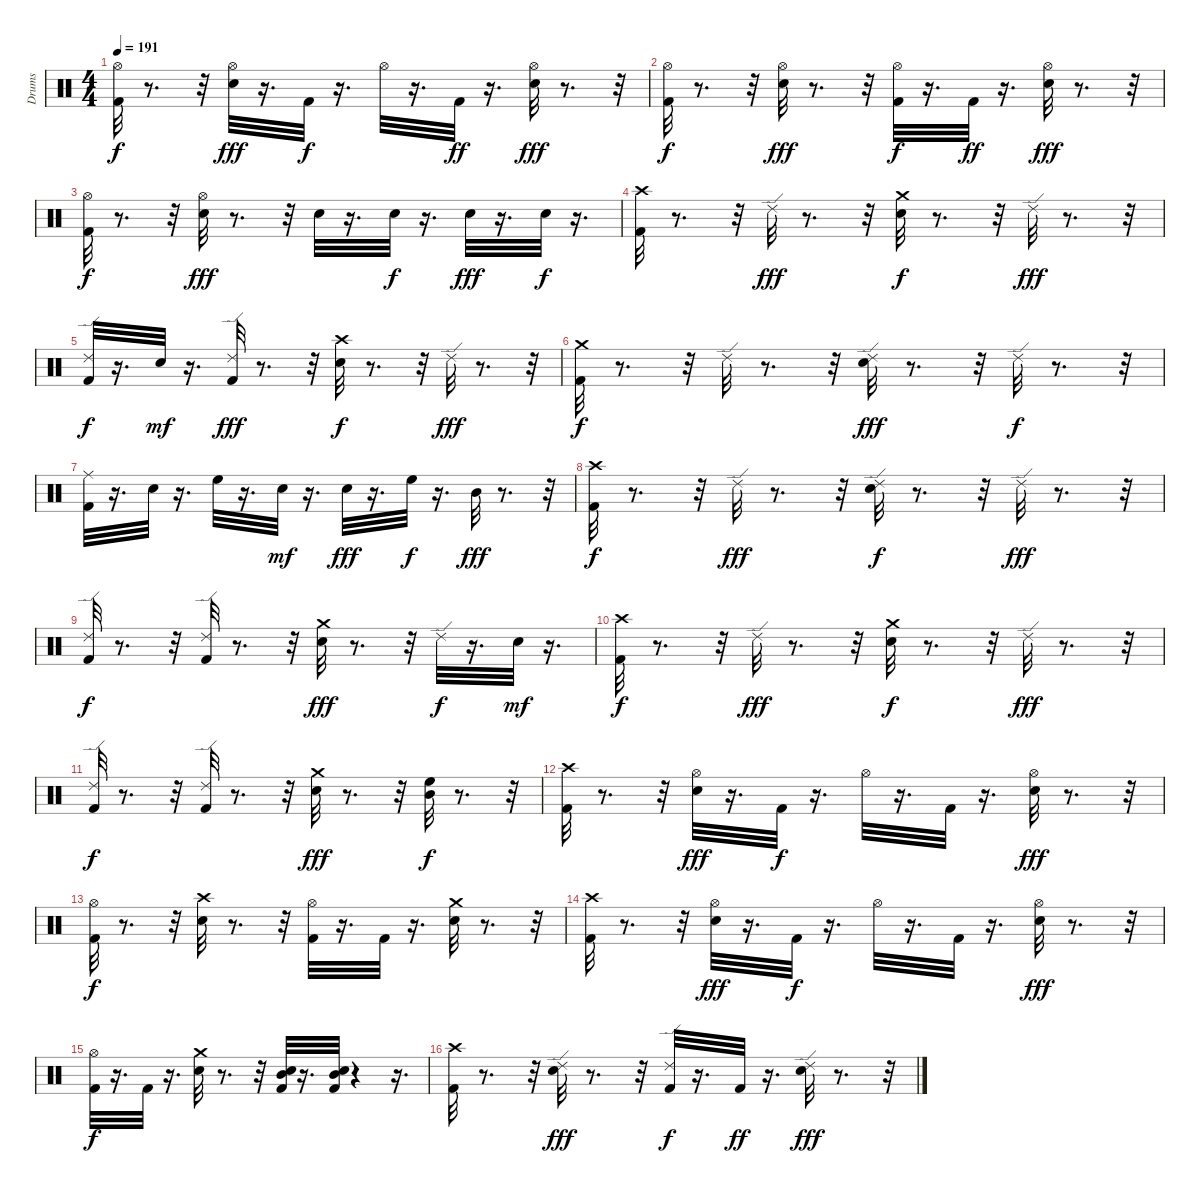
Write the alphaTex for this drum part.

\track ("Drums" "Drums") {instrument percussion}
\staff {score}
\articulation defaults
\ts (4 4)
\tempo 191
\clef neutral
\ks c
("Kick (hit) 2" "Hi-Hat (open)").32{dy f} r.8{d} r.32 ("Snare (hit) 2" "Hi-Hat (open)").32{dy fff} r.16{d} "Kick (hit) 2".32{dy f} r.16{d} "Hi-Hat (open)".32 r.16{d} "Kick (hit) 2".32{dy ff} r.16{d} ("Snare (hit) 2" "Hi-Hat (open)").32{dy fff} r.8{d} r.32 |
("Kick (hit) 2" "Hi-Hat (open)").32{dy f} r.8{d} r.32 ("Snare (hit) 2" "Hi-Hat (open)").32{dy fff} r.8{d} r.32 ("Kick (hit) 2" "Hi-Hat (open)").32{dy f} r.16{d} "Kick (hit) 2".32{dy ff} r.16{d} ("Snare (hit) 2" "Hi-Hat (open)").32{dy fff} r.8{d} r.32 |
("Kick (hit) 2" "Hi-Hat (open)").32{dy f} r.8{d} r.32 ("Snare (hit) 2" "Hi-Hat (open)").32{dy fff} r.8{d} r.32 "Snare (hit) 2".32 r.16{d} "Snare (hit) 2".32{dy f} r.16{d} "Snare (hit) 2".32{dy fff} r.16{d} "Snare (hit) 2".32{dy f} r.16{d} |
("Kick (hit) 2" "Crash high (hit)").32 r.8{d} r.32 "Ride (edge) 2".32{dy fff} r.8{d} r.32 ("Snare (hit) 2" "Crash medium (hit)").32{dy f} r.8{d} r.32 "Ride (edge) 2".32{dy fff} r.8{d} r.32 |
("Kick (hit) 2" "Ride (edge) 2").32{dy f} r.16{d} "Snare (hit) 2".32{dy mf} r.16{d} ("Kick (hit) 2" "Ride (edge) 2").32{dy fff} r.8{d} r.32 ("Snare (hit) 2" "Crash high (hit)").32{dy f} r.8{d} r.32 "Ride (edge) 2".32{dy fff} r.8{d} r.32 |
("Kick (hit) 2" "Crash medium (hit)").32{dy f} r.8{d} r.32 "Ride (edge) 2".32 r.8{d} r.32 ("Snare (hit) 2" "Ride (edge) 2").32{dy fff} r.8{d} r.32 "Ride (edge) 2".32{dy f} r.8{d} r.32 |
("Ride (middle)" "Kick (hit) 2").32 r.16{d} "Snare (hit) 2".32 r.16{d} "High Floor Tom (hit)".32 r.16{d} "Snare (hit) 2".32{dy mf} r.16{d} "Snare (hit) 2".32{dy fff} r.16{d} "High Floor Tom (hit)".32{dy f} r.16{d} "Mid Tom (hit)".32{dy fff} r.8{d} r.32 |
("Kick (hit) 2" "Crash high (hit)").32{dy f} r.8{d} r.32 "Ride (edge) 2".32{dy fff} r.8{d} r.32 ("Snare (hit) 2" "Ride (edge) 2").32{dy f} r.8{d} r.32 "Ride (edge) 2".32{dy fff} r.8{d} r.32 |
("Kick (hit) 2" "Ride (edge) 2").32{dy f} r.8{d} r.32 ("Kick (hit) 2" "Ride (edge) 2").32 r.8{d} r.32 ("Snare (hit) 2" "Crash medium (hit)").32{dy fff} r.8{d} r.32 "Ride (edge) 2".32{dy f} r.16{d} "Snare (hit) 2".32{dy mf} r.16{d} |
("Kick (hit) 2" "Crash high (hit)").32{dy f} r.8{d} r.32 "Ride (edge) 2".32{dy fff} r.8{d} r.32 ("Snare (hit) 2" "Crash medium (hit)").32{dy f} r.8{d} r.32 "Ride (edge) 2".32{dy fff} r.8{d} r.32 |
("Kick (hit) 2" "Ride (edge) 2").32{dy f} r.8{d} r.32 ("Kick (hit) 2" "Ride (edge) 2").32 r.8{d} r.32 ("Snare (hit) 2" "Crash medium (hit)").32{dy fff} r.8{d} r.32 ("High Floor Tom (hit)" "Mid Tom (hit)").32{dy f} r.8{d} r.32 |
("Kick (hit) 2" "Crash high (hit)").32 r.8{d} r.32 ("Hi-Hat (open)" "Snare (hit) 2").32{dy fff} r.16{d} "Kick (hit) 2".32{dy f} r.16{d} "Hi-Hat (open)".32 r.16{d} "Kick (hit) 2".32 r.16{d} ("Hi-Hat (open)" "Snare (hit) 2").32{dy fff} r.8{d} r.32 |
("Hi-Hat (open)" "Kick (hit) 2").32{dy f} r.8{d} r.32 ("Crash high (hit)" "Snare (hit) 2").32 r.8{d} r.32 ("Hi-Hat (open)" "Kick (hit) 2").32 r.16{d} "Kick (hit) 2".32 r.16{d} ("Crash medium (hit)" "Snare (hit) 2").32 r.8{d} r.32 |
("Kick (hit) 2" "Crash high (hit)").32 r.8{d} r.32 ("Hi-Hat (open)" "Snare (hit) 2").32{dy fff} r.16{d} "Kick (hit) 2".32{dy f} r.16{d} "Hi-Hat (open)".32 r.16{d} "Kick (hit) 2".32 r.16{d} ("Hi-Hat (open)" "Snare (hit) 2").32{dy fff} r.8{d} r.32 |
("Hi-Hat (open)" "Kick (hit) 2").32{dy f} r.16{d} "Kick (hit) 2".32 r.16{d} ("Crash medium (hit)" "Snare (hit) 2").32 r.8{d} r.32 ("Kick (hit) 2" "Mid Tom (hit)" "Snare (hit) 2").32 r.16{d} ("Kick (hit) 2" "Snare (hit) 2" "Mid Tom (hit)").32 r.4 r.16{d} |
("Crash high (hit)" "Kick (hit) 2").32 r.8{d} r.32 ("Snare (hit) 2" "Ride (edge) 2").32{dy fff} r.8{d} r.32 ("Kick (hit) 2" "Ride (edge) 2").32{dy f} r.16{d} "Kick (hit) 2".32{dy ff} r.16{d} ("Snare (hit) 2" "Ride (edge) 2").32{dy fff} r.8{d} r.32
